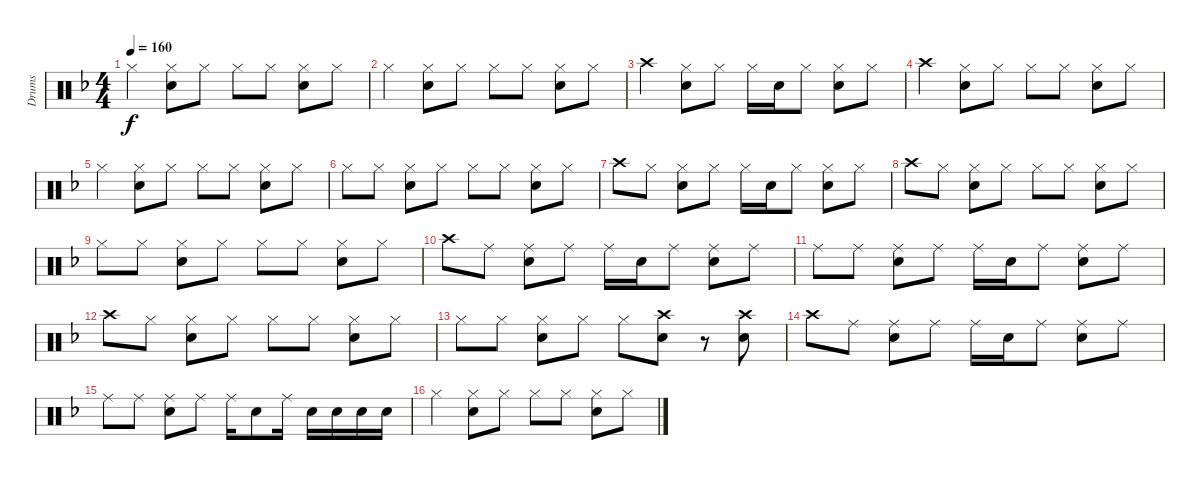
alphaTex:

\track ("Drums" "Drums") {instrument percussion}
\staff {score}
\articulation defaults
\ts (4 4)
\tempo 160
\clef neutral
\ks f "Hi-Hat (closed)".4{dy f}
("Hi-Hat (closed)" "Snare (hit) 2").8 "Hi-Hat (closed)".8 "Hi-Hat (closed)".8 "Hi-Hat (closed)".8 ("Hi-Hat (closed)" "Snare (hit) 2").8 "Hi-Hat (closed)".8 |
"Hi-Hat (closed)".4 ("Hi-Hat (closed)" "Snare (hit) 2").8 "Hi-Hat (closed)".8 "Hi-Hat (closed)".8 "Hi-Hat (closed)".8 ("Hi-Hat (closed)" "Snare (hit) 2").8 "Hi-Hat (closed)".8 |
"Crash high (hit)".4 ("Hi-Hat (closed)" "Snare (hit) 2").8 "Hi-Hat (closed)".8 "Hi-Hat (closed)".16 "Snare (hit) 2".16 "Hi-Hat (closed)".8 ("Hi-Hat (closed)" "Snare (hit) 2").8 "Hi-Hat (closed)".8 |
"Crash high (hit)".4 ("Hi-Hat (closed)" "Snare (hit) 2").8 "Hi-Hat (closed)".8 "Hi-Hat (closed)".8 "Hi-Hat (closed)".8 ("Hi-Hat (closed)" "Snare (hit) 2").8 "Hi-Hat (closed)".8 |
"Hi-Hat (closed)".4 ("Hi-Hat (closed)" "Snare (hit) 2").8 "Hi-Hat (closed)".8 "Hi-Hat (closed)".8 "Hi-Hat (closed)".8 ("Hi-Hat (closed)" "Snare (hit) 2").8 "Hi-Hat (closed)".8 |
"Hi-Hat (closed)".8 "Hi-Hat (closed)".8 ("Hi-Hat (closed)" "Snare (hit) 2").8 "Hi-Hat (closed)".8 "Hi-Hat (closed)".8 "Hi-Hat (closed)".8 ("Hi-Hat (closed)" "Snare (hit) 2").8 "Hi-Hat (closed)".8 |
"Crash high (hit)".8 "Hi-Hat (closed)".8 ("Hi-Hat (closed)" "Snare (hit) 2").8 "Hi-Hat (closed)".8 "Hi-Hat (closed)".16 "Snare (hit) 2".16 "Hi-Hat (closed)".8 ("Hi-Hat (closed)" "Snare (hit) 2").8 "Hi-Hat (closed)".8 |
"Crash high (hit)".8 "Hi-Hat (closed)".8 ("Hi-Hat (closed)" "Snare (hit) 2").8 "Hi-Hat (closed)".8 "Hi-Hat (closed)".8 "Hi-Hat (closed)".8 ("Hi-Hat (closed)" "Snare (hit) 2").8 "Hi-Hat (closed)".8 |
"Hi-Hat (closed)".8 "Hi-Hat (closed)".8 ("Hi-Hat (closed)" "Snare (hit) 2").8 "Hi-Hat (closed)".8 "Hi-Hat (closed)".8 "Hi-Hat (closed)".8 ("Hi-Hat (closed)" "Snare (hit) 2").8 "Hi-Hat (closed)".8 |
"Crash high (hit)".8 "Ride (middle)".8 ("Ride (middle)" "Snare (hit) 2").8 "Ride (middle)".8 "Ride (middle)".16 "Snare (hit) 2".16 "Ride (middle)".8 ("Ride (middle)" "Snare (hit) 2").8 "Ride (middle)".8 |
"Ride (middle)".8 "Ride (middle)".8 ("Ride (middle)" "Snare (hit) 2").8 "Ride (middle)".8 "Ride (middle)".16 "Snare (hit) 2".16 "Ride (middle)".8 ("Ride (middle)" "Snare (hit) 2").8 "Ride (middle)".8 |
"Crash high (hit)".8 "Hi-Hat (closed)".8 ("Hi-Hat (closed)" "Snare (hit) 2").8 "Hi-Hat (closed)".8 "Hi-Hat (closed)".8 "Hi-Hat (closed)".8 ("Hi-Hat (closed)" "Snare (hit) 2").8 "Hi-Hat (closed)".8 |
"Hi-Hat (closed)".8 "Hi-Hat (closed)".8 ("Hi-Hat (closed)" "Snare (hit) 2").8 "Hi-Hat (closed)".8 "Hi-Hat (closed)".8 ("Crash high (hit)" "Snare (hit) 2").8 r.8 ("Crash high (hit)" "Snare (hit) 2").8 |
"Crash high (hit)".8 "Ride (middle)".8 ("Ride (middle)" "Snare (hit) 2").8 "Ride (middle)".8 "Ride (middle)".16 "Snare (hit) 2".16 "Ride (middle)".8 ("Ride (middle)" "Snare (hit) 2").8 "Ride (middle)".8 |
"Ride (middle)".8 "Ride (middle)".8 ("Ride (middle)" "Snare (hit) 2").8 "Ride (middle)".8 "Ride (middle)".16 "Snare (hit) 2".8 "Ride (middle)".16 "Snare (hit) 2".16 "Snare (hit) 2".16 "Snare (hit) 2".16 "Snare (hit) 2".16 |
"Hi-Hat (closed)".4 ("Hi-Hat (closed)" "Snare (hit) 2").8 "Hi-Hat (closed)".8 "Hi-Hat (closed)".8 "Hi-Hat (closed)".8 ("Hi-Hat (closed)" "Snare (hit) 2").8 "Hi-Hat (closed)".8
